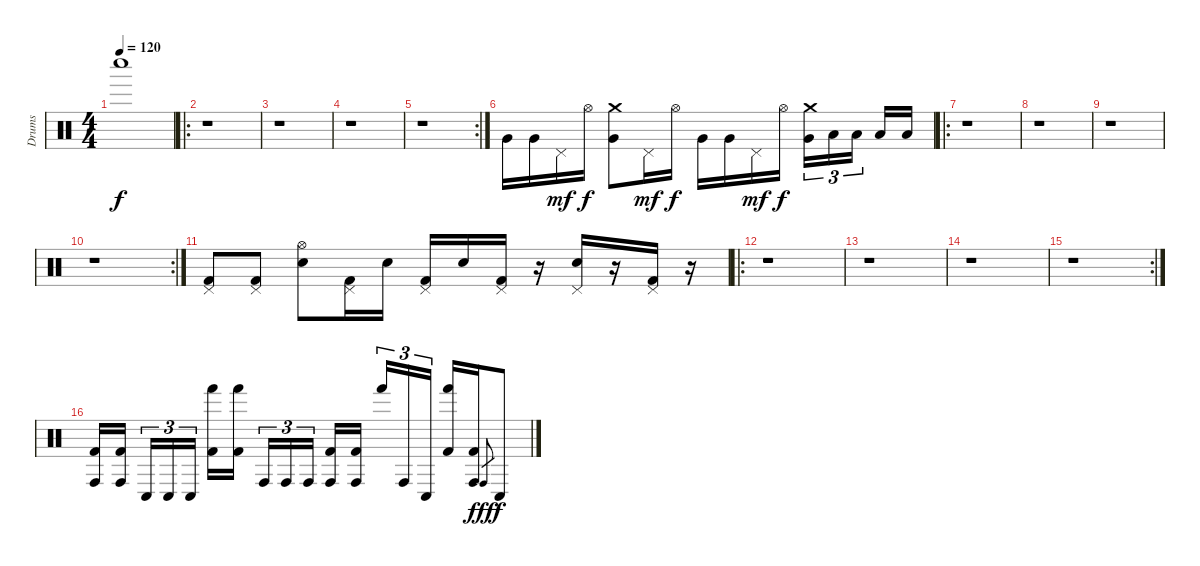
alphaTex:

\track ("Drums" "Drums") {instrument percussion}
\staff {score}
\articulation defaults
\ts (4 4)
\tempo 120
\clef neutral
\ks c "Whistle low (hit)".1{dy f}
|
\ro
r.1 |
r.1 |
r.1 |
\rc 2
r.1 |
"Very Low Tom (hit)".16 "Very Low Tom (hit)".16 "Pedal Hi-Hat (hit)".16{dy mf} "Hi-Hat (open)".16{dy f} ("Crash medium (hit)" "Very Low Tom (hit)").8 "Pedal Hi-Hat (hit)".16{dy mf} "Hi-Hat (open)".16{dy f} "Very Low Tom (hit)".16 "Very Low Tom (hit)".16 "Pedal Hi-Hat (hit)".16{dy mf} "Hi-Hat (open)".16{dy f} ("Crash medium (hit)" "Very Low Tom (hit)").16{tu (3 2)} "Low Tom (hit)".16{tu (3 2)} "Low Tom (hit)".16{tu (3 2)} "Low Floor Tom (hit)".16 "Low Floor Tom (hit)".16 |
\ro
r.1 |
r.1 |
r.1 |
\rc 2
r.1 |
("Pedal Hi-Hat (hit)" "Kick (hit) 2").8 ("Pedal Hi-Hat (hit)" "Kick (hit) 2").8 ("Hi-Hat (open)" "Electric Snare (hit)").8 ("Pedal Hi-Hat (hit)" "Kick (hit) 2").16 "Electric Snare (hit)".16 ("Pedal Hi-Hat (hit)" "Kick (hit) 2").16 "Electric Snare (hit)".16 ("Pedal Hi-Hat (hit)" "Kick (hit) 2").16 r.16 ("Pedal Hi-Hat (hit)" "Electric Snare (hit)").16 r.16 ("Pedal Hi-Hat (hit)" "Kick (hit) 2").16 r.16 |
\ro
r.1 |
r.1 |
r.1 |
\rc 2
r.1 |
("Conga high (hit)" "Kick (hit) 2").16 ("Conga high (hit)" "Kick (hit) 2").16 "Conga low (hit)".16{tu (3 2)} "Conga low (hit)".16{tu (3 2)} "Conga low (hit)".16{tu (3 2)} ("Hand (hit)" "Kick (hit) 2").16 ("Hand (hit)" "Kick (hit) 2").16 "Conga high (hit)".16{tu (3 2)} "Conga high (hit)".16{tu (3 2)} "Conga high (hit)".16{tu (3 2)} ("Conga high (hit)" "Kick (hit) 2").16 ("Conga high (hit)" "Kick (hit) 2").16 "Hand (hit)".16{tu (3 2)} "Conga high (hit)".16{tu (3 2)} "Conga low (hit)".16{tu (3 2)} ("Hand (hit)" "Kick (hit) 2").16 ("Conga high (hit)" "Kick (hit) 2").16 "Conga high (hit)"{h}.8{gr dy fff} "Conga low (hit)".8{dy f}
